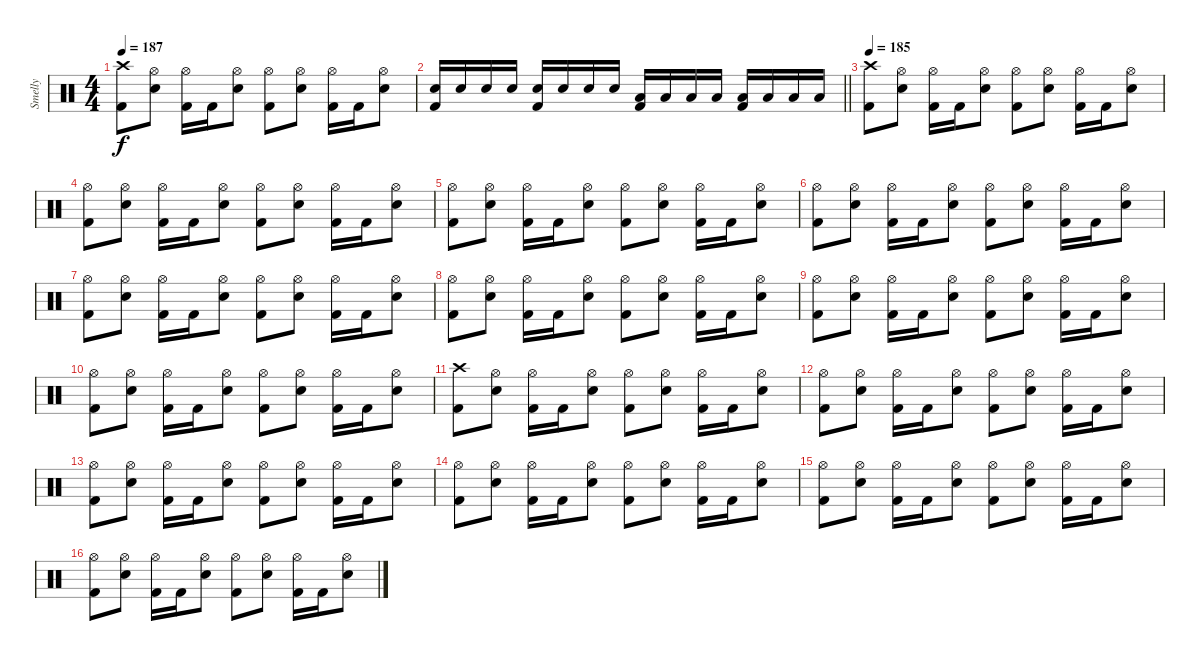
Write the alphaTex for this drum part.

\track ("Smelly" "Smelly") {instrument percussion}
\staff {score}
\articulation defaults
\ts (4 4)
\tempo 187
\clef neutral
\ks c
("Crash high (hit)" "Kick (hit) 2").8{dy f} ("Hi-Hat (open)" "Electric Snare (hit)").8 ("Hi-Hat (open)" "Kick (hit) 2").16 "Kick (hit) 2".16 ("Hi-Hat (open)" "Electric Snare (hit)").8 ("Hi-Hat (open)" "Kick (hit) 2").8 ("Hi-Hat (open)" "Electric Snare (hit)").8 ("Hi-Hat (open)" "Kick (hit) 2").16 "Kick (hit) 2".16 ("Hi-Hat (open)" "Electric Snare (hit)").8 |
\barLineRight lightlight
("Electric Snare (hit)" "Kick (hit) 2").16 "Electric Snare (hit)".16 "Electric Snare (hit)".16 "Electric Snare (hit)".16 ("Electric Snare (hit)" "Kick (hit) 2").16 "Electric Snare (hit)".16 "Electric Snare (hit)".16 "Electric Snare (hit)".16 ("Low Tom (hit)" "Kick (hit) 2").16 "Low Tom (hit)".16 "Low Tom (hit)".16 "Low Tom (hit)".16 ("Low Floor Tom (hit)" "Kick (hit) 2").16 "Low Floor Tom (hit)".16 "Low Floor Tom (hit)".16 "Low Floor Tom (hit)".16 |
\section ("" "")
\tempo 185
("Crash high (hit)" "Kick (hit) 2").8 ("Hi-Hat (open)" "Electric Snare (hit)").8 ("Hi-Hat (open)" "Kick (hit) 2").16 "Kick (hit) 2".16 ("Hi-Hat (open)" "Electric Snare (hit)").8 ("Hi-Hat (open)" "Kick (hit) 2").8 ("Hi-Hat (open)" "Electric Snare (hit)").8 ("Hi-Hat (open)" "Kick (hit) 2").16 "Kick (hit) 2".16 ("Hi-Hat (open)" "Electric Snare (hit)").8 |
("Hi-Hat (open)" "Kick (hit) 2").8 ("Hi-Hat (open)" "Electric Snare (hit)").8 ("Hi-Hat (open)" "Kick (hit) 2").16 "Kick (hit) 2".16 ("Hi-Hat (open)" "Electric Snare (hit)").8 ("Hi-Hat (open)" "Kick (hit) 2").8 ("Hi-Hat (open)" "Electric Snare (hit)").8 ("Hi-Hat (open)" "Kick (hit) 2").16 "Kick (hit) 2".16 ("Hi-Hat (open)" "Electric Snare (hit)").8 |
("Hi-Hat (open)" "Kick (hit) 2").8 ("Hi-Hat (open)" "Electric Snare (hit)").8 ("Hi-Hat (open)" "Kick (hit) 2").16 "Kick (hit) 2".16 ("Hi-Hat (open)" "Electric Snare (hit)").8 ("Hi-Hat (open)" "Kick (hit) 2").8 ("Hi-Hat (open)" "Electric Snare (hit)").8 ("Hi-Hat (open)" "Kick (hit) 2").16 "Kick (hit) 2".16 ("Hi-Hat (open)" "Electric Snare (hit)").8 |
("Hi-Hat (open)" "Kick (hit) 2").8 ("Hi-Hat (open)" "Electric Snare (hit)").8 ("Hi-Hat (open)" "Kick (hit) 2").16 "Kick (hit) 2".16 ("Hi-Hat (open)" "Electric Snare (hit)").8 ("Hi-Hat (open)" "Kick (hit) 2").8 ("Hi-Hat (open)" "Electric Snare (hit)").8 ("Hi-Hat (open)" "Kick (hit) 2").16 "Kick (hit) 2".16 ("Hi-Hat (open)" "Electric Snare (hit)").8 |
("Hi-Hat (open)" "Kick (hit) 2").8 ("Hi-Hat (open)" "Electric Snare (hit)").8 ("Hi-Hat (open)" "Kick (hit) 2").16 "Kick (hit) 2".16 ("Hi-Hat (open)" "Electric Snare (hit)").8 ("Hi-Hat (open)" "Kick (hit) 2").8 ("Hi-Hat (open)" "Electric Snare (hit)").8 ("Hi-Hat (open)" "Kick (hit) 2").16 "Kick (hit) 2".16 ("Hi-Hat (open)" "Electric Snare (hit)").8 |
("Hi-Hat (open)" "Kick (hit) 2").8 ("Hi-Hat (open)" "Electric Snare (hit)").8 ("Hi-Hat (open)" "Kick (hit) 2").16 "Kick (hit) 2".16 ("Hi-Hat (open)" "Electric Snare (hit)").8 ("Hi-Hat (open)" "Kick (hit) 2").8 ("Hi-Hat (open)" "Electric Snare (hit)").8 ("Hi-Hat (open)" "Kick (hit) 2").16 "Kick (hit) 2".16 ("Hi-Hat (open)" "Electric Snare (hit)").8 |
("Hi-Hat (open)" "Kick (hit) 2").8 ("Hi-Hat (open)" "Electric Snare (hit)").8 ("Hi-Hat (open)" "Kick (hit) 2").16 "Kick (hit) 2".16 ("Hi-Hat (open)" "Electric Snare (hit)").8 ("Hi-Hat (open)" "Kick (hit) 2").8 ("Hi-Hat (open)" "Electric Snare (hit)").8 ("Hi-Hat (open)" "Kick (hit) 2").16 "Kick (hit) 2".16 ("Hi-Hat (open)" "Electric Snare (hit)").8 |
("Hi-Hat (open)" "Kick (hit) 2").8 ("Hi-Hat (open)" "Electric Snare (hit)").8 ("Hi-Hat (open)" "Kick (hit) 2").16 "Kick (hit) 2".16 ("Hi-Hat (open)" "Electric Snare (hit)").8 ("Hi-Hat (open)" "Kick (hit) 2").8 ("Hi-Hat (open)" "Electric Snare (hit)").8 ("Hi-Hat (open)" "Kick (hit) 2").16 "Kick (hit) 2".16 ("Hi-Hat (open)" "Electric Snare (hit)").8 |
("Crash high (hit)" "Kick (hit) 2").8 ("Hi-Hat (open)" "Electric Snare (hit)").8 ("Hi-Hat (open)" "Kick (hit) 2").16 "Kick (hit) 2".16 ("Hi-Hat (open)" "Electric Snare (hit)").8 ("Hi-Hat (open)" "Kick (hit) 2").8 ("Hi-Hat (open)" "Electric Snare (hit)").8 ("Hi-Hat (open)" "Kick (hit) 2").16 "Kick (hit) 2".16 ("Hi-Hat (open)" "Electric Snare (hit)").8 |
("Hi-Hat (open)" "Kick (hit) 2").8 ("Hi-Hat (open)" "Electric Snare (hit)").8 ("Hi-Hat (open)" "Kick (hit) 2").16 "Kick (hit) 2".16 ("Hi-Hat (open)" "Electric Snare (hit)").8 ("Hi-Hat (open)" "Kick (hit) 2").8 ("Hi-Hat (open)" "Electric Snare (hit)").8 ("Hi-Hat (open)" "Kick (hit) 2").16 "Kick (hit) 2".16 ("Hi-Hat (open)" "Electric Snare (hit)").8 |
("Hi-Hat (open)" "Kick (hit) 2").8 ("Hi-Hat (open)" "Electric Snare (hit)").8 ("Hi-Hat (open)" "Kick (hit) 2").16 "Kick (hit) 2".16 ("Hi-Hat (open)" "Electric Snare (hit)").8 ("Hi-Hat (open)" "Kick (hit) 2").8 ("Hi-Hat (open)" "Electric Snare (hit)").8 ("Hi-Hat (open)" "Kick (hit) 2").16 "Kick (hit) 2".16 ("Hi-Hat (open)" "Electric Snare (hit)").8 |
("Hi-Hat (open)" "Kick (hit) 2").8 ("Hi-Hat (open)" "Electric Snare (hit)").8 ("Hi-Hat (open)" "Kick (hit) 2").16 "Kick (hit) 2".16 ("Hi-Hat (open)" "Electric Snare (hit)").8 ("Hi-Hat (open)" "Kick (hit) 2").8 ("Hi-Hat (open)" "Electric Snare (hit)").8 ("Hi-Hat (open)" "Kick (hit) 2").16 "Kick (hit) 2".16 ("Hi-Hat (open)" "Electric Snare (hit)").8 |
("Hi-Hat (open)" "Kick (hit) 2").8 ("Hi-Hat (open)" "Electric Snare (hit)").8 ("Hi-Hat (open)" "Kick (hit) 2").16 "Kick (hit) 2".16 ("Hi-Hat (open)" "Electric Snare (hit)").8 ("Hi-Hat (open)" "Kick (hit) 2").8 ("Hi-Hat (open)" "Electric Snare (hit)").8 ("Hi-Hat (open)" "Kick (hit) 2").16 "Kick (hit) 2".16 ("Hi-Hat (open)" "Electric Snare (hit)").8 |
("Hi-Hat (open)" "Kick (hit) 2").8 ("Hi-Hat (open)" "Electric Snare (hit)").8 ("Hi-Hat (open)" "Kick (hit) 2").16 "Kick (hit) 2".16 ("Hi-Hat (open)" "Electric Snare (hit)").8 ("Hi-Hat (open)" "Kick (hit) 2").8 ("Hi-Hat (open)" "Electric Snare (hit)").8 ("Hi-Hat (open)" "Kick (hit) 2").16 "Kick (hit) 2".16 ("Hi-Hat (open)" "Electric Snare (hit)").8
